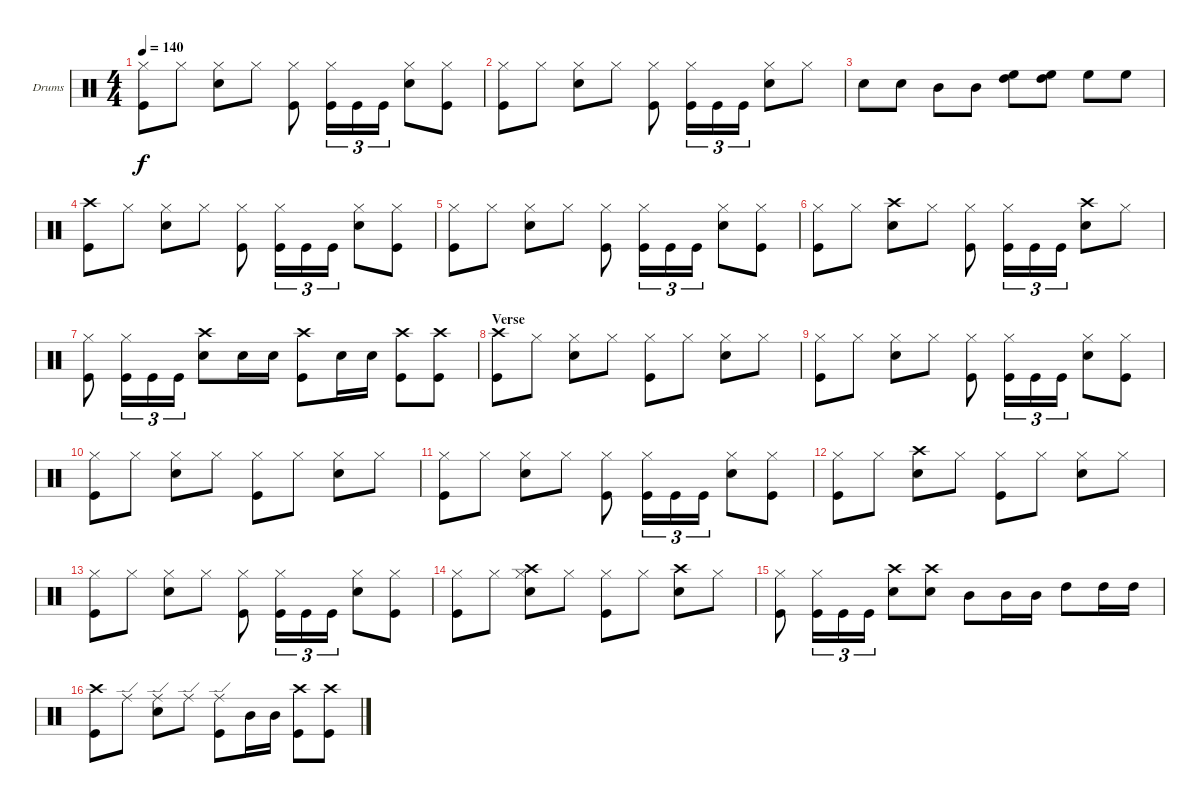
\defaultSystemsLayout 4
\bracketExtendMode groupsimilarinstruments
\firstSystemTrackNameOrientation horizontal
\otherSystemsTrackNameOrientation horizontal
\track ("Drums" "Drums") {instrument percussion}
\staff {score}
\articulation defaults
\ts (4 4)
\tempo 140
\clef neutral
\ks c
("Hi-Hat (closed)" "Kick (hit)").8{dy f} "Hi-Hat (closed)".8 ("Snare (hit) 2" "Hi-Hat (closed)").8 "Hi-Hat (closed)".8 ("Kick (hit)" "Hi-Hat (closed)").8 ("Kick (hit)" "Hi-Hat (closed)").16{tu (3 2)} "Kick (hit)".16{tu (3 2)} "Kick (hit)".16{tu (3 2)} ("Snare (hit) 2" "Hi-Hat (closed)").8 ("Kick (hit)" "Hi-Hat (closed)").8 |
("Hi-Hat (closed)" "Kick (hit)").8 "Hi-Hat (closed)".8 ("Snare (hit) 2" "Hi-Hat (closed)").8 "Hi-Hat (closed)".8 ("Kick (hit)" "Hi-Hat (closed)").8 ("Kick (hit)" "Hi-Hat (closed)").16{tu (3 2)} "Kick (hit)".16{tu (3 2)} "Kick (hit)".16{tu (3 2)} ("Snare (hit) 2" "Hi-Hat (closed)").8 "Hi-Hat (closed)".8 |
"Snare (hit) 2".8 "Snare (hit) 2".8 "Mid Tom (hit)".8 "Mid Tom (hit)".8 ("High Floor Tom (hit)" "High Tom (hit)").8 ("High Floor Tom (hit)" "High Tom (hit)").8 "High Floor Tom (hit)".8 "High Floor Tom (hit)".8 |
("Crash high (hit)" "Kick (hit)").8 "Hi-Hat (closed)".8 ("Snare (hit) 2" "Hi-Hat (closed)").8 "Hi-Hat (closed)".8 ("Kick (hit)" "Hi-Hat (closed)").8 ("Kick (hit)" "Hi-Hat (closed)").16{tu (3 2)} "Kick (hit)".16{tu (3 2)} "Kick (hit)".16{tu (3 2)} ("Snare (hit) 2" "Hi-Hat (closed)").8 ("Kick (hit)" "Hi-Hat (closed)").8 |
("Hi-Hat (closed)" "Kick (hit)").8 "Hi-Hat (closed)".8 ("Snare (hit) 2" "Hi-Hat (closed)").8 "Hi-Hat (closed)".8 ("Kick (hit)" "Hi-Hat (closed)").8 ("Kick (hit)" "Hi-Hat (closed)").16{tu (3 2)} "Kick (hit)".16{tu (3 2)} "Kick (hit)".16{tu (3 2)} ("Snare (hit) 2" "Hi-Hat (closed)").8 ("Kick (hit)" "Hi-Hat (closed)").8 |
("Hi-Hat (closed)" "Kick (hit)").8 "Hi-Hat (closed)".8 ("Crash high (hit)" "Snare (hit) 2").8 "Hi-Hat (closed)".8 ("Kick (hit)" "Hi-Hat (closed)").8 ("Kick (hit)" "Hi-Hat (closed)").16{tu (3 2)} "Kick (hit)".16{tu (3 2)} "Kick (hit)".16{tu (3 2)} ("Crash high (hit)" "Snare (hit) 2").8 "Hi-Hat (closed)".8 |
("Kick (hit)" "Hi-Hat (closed)").8 ("Kick (hit)" "Hi-Hat (closed)").16{tu (3 2)} "Kick (hit)".16{tu (3 2)} "Kick (hit)".16{tu (3 2)} ("Snare (hit) 2" "Crash high (hit)").8 "Snare (hit) 2".16 "Snare (hit) 2".16 ("Kick (hit)" "Crash high (hit)").8 "Snare (hit) 2".16 "Snare (hit) 2".16 ("Kick (hit)" "Crash high (hit)").8 ("Kick (hit)" "Crash high (hit)").8 |
\section ("" "Verse")
("Kick (hit)" "Crash high (hit)").8 "Hi-Hat (closed)".8 ("Snare (hit) 2" "Hi-Hat (closed)").8 "Hi-Hat (closed)".8 ("Kick (hit)" "Hi-Hat (closed)").8 "Hi-Hat (closed)".8 ("Snare (hit) 2" "Hi-Hat (closed)").8 "Hi-Hat (closed)".8 |
("Kick (hit)" "Hi-Hat (closed)").8 "Hi-Hat (closed)".8 ("Hi-Hat (closed)" "Snare (hit) 2").8 "Hi-Hat (closed)".8 ("Kick (hit)" "Hi-Hat (closed)").8 ("Kick (hit)" "Hi-Hat (closed)").16{tu (3 2)} "Kick (hit)".16{tu (3 2)} "Kick (hit)".16{tu (3 2)} ("Snare (hit) 2" "Hi-Hat (closed)").8 ("Kick (hit)" "Hi-Hat (closed)").8 |
("Hi-Hat (closed)" "Kick (hit)").8 "Hi-Hat (closed)".8 ("Hi-Hat (closed)" "Snare (hit) 2").8 "Hi-Hat (closed)".8 ("Hi-Hat (closed)" "Kick (hit)").8 "Hi-Hat (closed)".8 ("Snare (hit) 2" "Hi-Hat (closed)").8 "Hi-Hat (closed)".8 |
("Kick (hit)" "Hi-Hat (closed)").8 "Hi-Hat (closed)".8 ("Hi-Hat (closed)" "Snare (hit) 2").8 "Hi-Hat (closed)".8 ("Kick (hit)" "Hi-Hat (closed)").8 ("Kick (hit)" "Hi-Hat (closed)").16{tu (3 2)} "Kick (hit)".16{tu (3 2)} "Kick (hit)".16{tu (3 2)} ("Snare (hit) 2" "Hi-Hat (closed)").8 ("Kick (hit)" "Hi-Hat (closed)").8 |
("Hi-Hat (closed)" "Kick (hit)").8 "Hi-Hat (closed)".8 ("Crash high (hit)" "Snare (hit) 2").8 "Hi-Hat (closed)".8 ("Hi-Hat (closed)" "Kick (hit)").8 "Hi-Hat (closed)".8 ("Snare (hit) 2" "Hi-Hat (closed)").8 "Hi-Hat (closed)".8 |
("Kick (hit)" "Hi-Hat (closed)").8 "Hi-Hat (closed)".8 ("Hi-Hat (closed)" "Snare (hit) 2").8 "Hi-Hat (closed)".8 ("Kick (hit)" "Hi-Hat (closed)").8 ("Kick (hit)" "Hi-Hat (closed)").16{tu (3 2)} "Kick (hit)".16{tu (3 2)} "Kick (hit)".16{tu (3 2)} ("Snare (hit) 2" "Hi-Hat (closed)").8 ("Kick (hit)" "Hi-Hat (closed)").8 |
("Kick (hit)" "Hi-Hat (closed)").8 "Hi-Hat (closed)".8 ("Hi-Hat (closed)" "Snare (hit) 2" "Crash high (hit)").8 "Hi-Hat (closed)".8 ("Kick (hit)" "Hi-Hat (closed)").8 "Hi-Hat (closed)".8 ("Crash high (hit)" "Snare (hit) 2").8 "Hi-Hat (closed)".8 |
("Hi-Hat (closed)" "Kick (hit)").8 ("Hi-Hat (closed)" "Kick (hit)").16{tu (3 2)} "Kick (hit)".16{tu (3 2)} "Kick (hit)".16{tu (3 2)} ("Snare (hit) 2" "Crash high (hit)").8 ("Snare (hit) 2" "Crash high (hit)").8 "Mid Tom (hit)".8 "Mid Tom (hit)".16 "Mid Tom (hit)".16 "High Tom (hit)".8 "High Tom (hit)".16 "High Tom (hit)".16 |
("Crash high (hit)" "Kick (hit)").8 "Ride (edge)".8 ("Snare (hit) 2" "Ride (edge)").8 "Ride (edge)".8 ("Ride (edge)" "Kick (hit)").8 "Mid Tom (hit)".16 "Mid Tom (hit)".16 ("Crash high (hit)" "Kick (hit)").8 ("Crash high (hit)" "Kick (hit)").8
